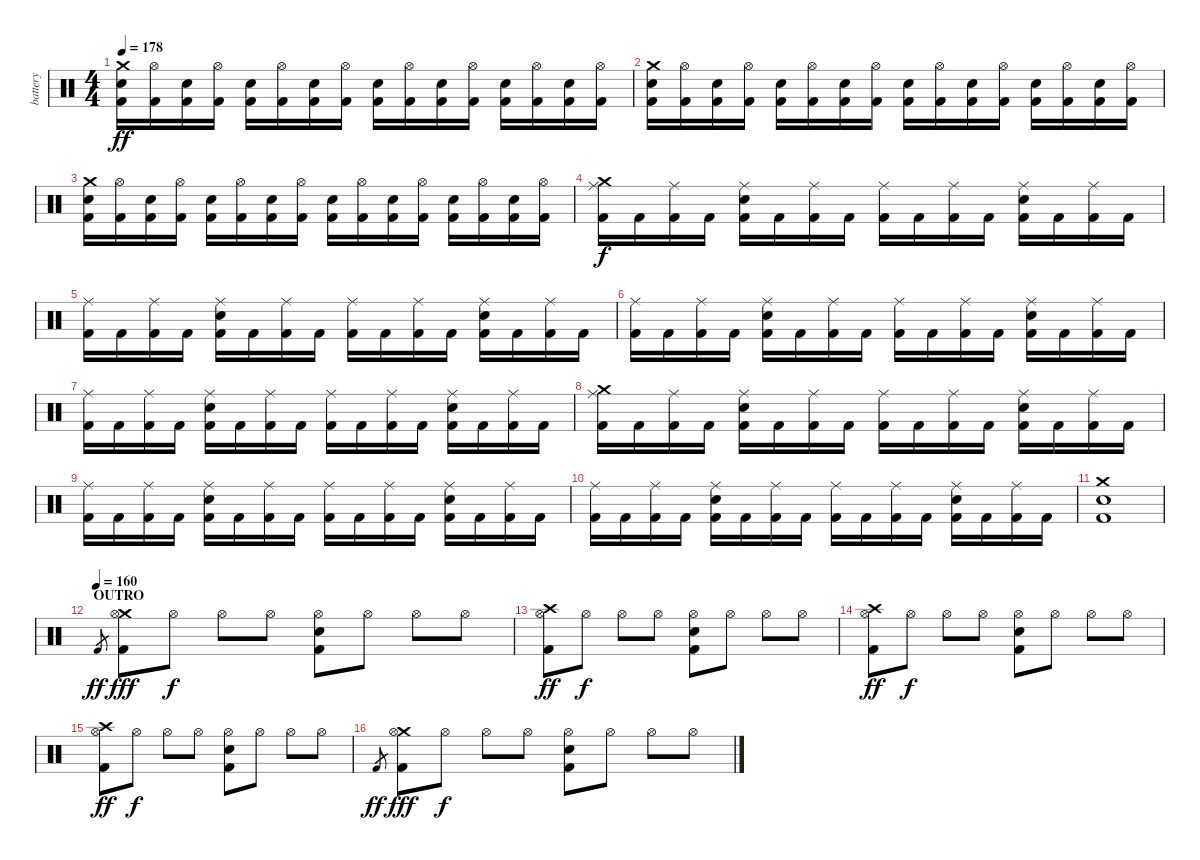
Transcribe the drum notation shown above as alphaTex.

\track ("battery" "battery") {instrument percussion}
\staff {score}
\articulation defaults
\ts (4 4)
\tempo 178
\clef neutral
\ks c
("Kick (hit) 2" "Electric Snare (hit)" "Crash medium (hit)").16{dy ff} ("Kick (hit) 2" "Hi-Hat (open)").16 ("Kick (hit) 2" "Electric Snare (hit)").16 ("Kick (hit) 2" "Hi-Hat (open)").16 ("Kick (hit) 2" "Electric Snare (hit)").16 ("Kick (hit) 2" "Hi-Hat (open)").16 ("Kick (hit) 2" "Electric Snare (hit)").16 ("Kick (hit) 2" "Hi-Hat (open)").16 ("Kick (hit) 2" "Electric Snare (hit)").16 ("Kick (hit) 2" "Hi-Hat (open)").16 ("Kick (hit) 2" "Electric Snare (hit)").16 ("Kick (hit) 2" "Hi-Hat (open)").16 ("Kick (hit) 2" "Electric Snare (hit)").16 ("Kick (hit) 2" "Hi-Hat (open)").16 ("Kick (hit) 2" "Electric Snare (hit)").16 ("Kick (hit) 2" "Hi-Hat (open)").16 |
("Kick (hit) 2" "Electric Snare (hit)" "Crash medium (hit)").16 ("Kick (hit) 2" "Hi-Hat (open)").16 ("Kick (hit) 2" "Electric Snare (hit)").16 ("Kick (hit) 2" "Hi-Hat (open)").16 ("Kick (hit) 2" "Electric Snare (hit)").16 ("Kick (hit) 2" "Hi-Hat (open)").16 ("Kick (hit) 2" "Electric Snare (hit)").16 ("Kick (hit) 2" "Hi-Hat (open)").16 ("Kick (hit) 2" "Electric Snare (hit)").16 ("Kick (hit) 2" "Hi-Hat (open)").16 ("Kick (hit) 2" "Electric Snare (hit)").16 ("Kick (hit) 2" "Hi-Hat (open)").16 ("Kick (hit) 2" "Electric Snare (hit)").16 ("Kick (hit) 2" "Hi-Hat (open)").16 ("Kick (hit) 2" "Electric Snare (hit)").16 ("Kick (hit) 2" "Hi-Hat (open)").16 |
("Kick (hit) 2" "Electric Snare (hit)" "Crash medium (hit)").16 ("Kick (hit) 2" "Hi-Hat (open)").16 ("Kick (hit) 2" "Electric Snare (hit)").16 ("Kick (hit) 2" "Hi-Hat (open)").16 ("Kick (hit) 2" "Electric Snare (hit)").16 ("Kick (hit) 2" "Hi-Hat (open)").16 ("Kick (hit) 2" "Electric Snare (hit)").16 ("Kick (hit) 2" "Hi-Hat (open)").16 ("Kick (hit) 2" "Electric Snare (hit)").16 ("Kick (hit) 2" "Hi-Hat (open)").16 ("Kick (hit) 2" "Electric Snare (hit)").16 ("Kick (hit) 2" "Hi-Hat (open)").16 ("Kick (hit) 2" "Electric Snare (hit)").16 ("Kick (hit) 2" "Hi-Hat (open)").16 ("Kick (hit) 2" "Electric Snare (hit)").16 ("Kick (hit) 2" "Hi-Hat (open)").16 |
("Kick (hit) 2" "Crash medium (hit)" "Ride (middle)").16{dy f} "Kick (hit) 2".16 ("Kick (hit) 2" "Ride (middle)").16 "Kick (hit) 2".16 ("Kick (hit) 2" "Electric Snare (hit)" "Ride (middle)").16 "Kick (hit) 2".16 ("Kick (hit) 2" "Ride (middle)").16 "Kick (hit) 2".16 ("Kick (hit) 2" "Ride (middle)").16 "Kick (hit) 2".16 ("Kick (hit) 2" "Ride (middle)").16 "Kick (hit) 2".16 ("Kick (hit) 2" "Electric Snare (hit)" "Ride (middle)").16 "Kick (hit) 2".16 ("Kick (hit) 2" "Ride (middle)").16 "Kick (hit) 2".16 |
("Kick (hit) 2" "Ride (middle)").16 "Kick (hit) 2".16 ("Kick (hit) 2" "Ride (middle)").16 "Kick (hit) 2".16 ("Kick (hit) 2" "Electric Snare (hit)" "Ride (middle)").16 "Kick (hit) 2".16 ("Kick (hit) 2" "Ride (middle)").16 "Kick (hit) 2".16 ("Kick (hit) 2" "Ride (middle)").16 "Kick (hit) 2".16 ("Kick (hit) 2" "Ride (middle)").16 "Kick (hit) 2".16 ("Kick (hit) 2" "Electric Snare (hit)" "Ride (middle)").16 "Kick (hit) 2".16 ("Kick (hit) 2" "Ride (middle)").16 "Kick (hit) 2".16 |
("Kick (hit) 2" "Ride (middle)").16 "Kick (hit) 2".16 ("Kick (hit) 2" "Ride (middle)").16 "Kick (hit) 2".16 ("Kick (hit) 2" "Electric Snare (hit)" "Ride (middle)").16 "Kick (hit) 2".16 ("Kick (hit) 2" "Ride (middle)").16 "Kick (hit) 2".16 ("Kick (hit) 2" "Ride (middle)").16 "Kick (hit) 2".16 ("Kick (hit) 2" "Ride (middle)").16 "Kick (hit) 2".16 ("Kick (hit) 2" "Electric Snare (hit)" "Ride (middle)").16 "Kick (hit) 2".16 ("Kick (hit) 2" "Ride (middle)").16 "Kick (hit) 2".16 |
("Kick (hit) 2" "Ride (middle)").16 "Kick (hit) 2".16 ("Kick (hit) 2" "Ride (middle)").16 "Kick (hit) 2".16 ("Kick (hit) 2" "Electric Snare (hit)" "Ride (middle)").16 "Kick (hit) 2".16 ("Kick (hit) 2" "Ride (middle)").16 "Kick (hit) 2".16 ("Kick (hit) 2" "Ride (middle)").16 "Kick (hit) 2".16 ("Kick (hit) 2" "Ride (middle)").16 "Kick (hit) 2".16 ("Kick (hit) 2" "Electric Snare (hit)" "Ride (middle)").16 "Kick (hit) 2".16 ("Kick (hit) 2" "Ride (middle)").16 "Kick (hit) 2".16 |
("Kick (hit) 2" "Crash medium (hit)" "Ride (middle)").16 "Kick (hit) 2".16 ("Kick (hit) 2" "Ride (middle)").16 "Kick (hit) 2".16 ("Kick (hit) 2" "Electric Snare (hit)" "Ride (middle)").16 "Kick (hit) 2".16 ("Kick (hit) 2" "Ride (middle)").16 "Kick (hit) 2".16 ("Kick (hit) 2" "Ride (middle)").16 "Kick (hit) 2".16 ("Kick (hit) 2" "Ride (middle)").16 "Kick (hit) 2".16 ("Kick (hit) 2" "Electric Snare (hit)" "Ride (middle)").16 "Kick (hit) 2".16 ("Kick (hit) 2" "Ride (middle)").16 "Kick (hit) 2".16 |
("Kick (hit) 2" "Ride (middle)").16 "Kick (hit) 2".16 ("Kick (hit) 2" "Ride (middle)").16 "Kick (hit) 2".16 ("Kick (hit) 2" "Electric Snare (hit)" "Ride (middle)").16 "Kick (hit) 2".16 ("Kick (hit) 2" "Ride (middle)").16 "Kick (hit) 2".16 ("Kick (hit) 2" "Ride (middle)").16 "Kick (hit) 2".16 ("Kick (hit) 2" "Ride (middle)").16 "Kick (hit) 2".16 ("Kick (hit) 2" "Electric Snare (hit)" "Ride (middle)").16 "Kick (hit) 2".16 ("Kick (hit) 2" "Ride (middle)").16 "Kick (hit) 2".16 |
("Kick (hit) 2" "Ride (middle)").16 "Kick (hit) 2".16 ("Kick (hit) 2" "Ride (middle)").16 "Kick (hit) 2".16 ("Kick (hit) 2" "Electric Snare (hit)" "Ride (middle)").16 "Kick (hit) 2".16 ("Kick (hit) 2" "Ride (middle)").16 "Kick (hit) 2".16 ("Kick (hit) 2" "Ride (middle)").16 "Kick (hit) 2".16 ("Kick (hit) 2" "Ride (middle)").16 "Kick (hit) 2".16 ("Kick (hit) 2" "Electric Snare (hit)" "Ride (middle)").16 "Kick (hit) 2".16 ("Kick (hit) 2" "Ride (middle)").16 "Kick (hit) 2".16 |
("Electric Snare (hit)" "Crash medium (hit)" "Kick (hit) 2").1 |
\section ("" "OUTRO")
\tempo (160)
"Kick (hit) 2".8{gr dy ff} ("Kick (hit) 2" "Crash medium (hit)" "Hi-Hat (open)").8{dy fff} "Hi-Hat (open)".8{dy f} "Hi-Hat (open)".8 "Hi-Hat (open)".8 ("Kick (hit) 2" "Electric Snare (hit)" "Hi-Hat (open)").8 "Hi-Hat (open)".8 "Hi-Hat (open)".8 "Hi-Hat (open)".8 |
("Kick (hit) 2" "Crash high (hit)" "Hi-Hat (open)").8{dy ff} "Hi-Hat (open)".8{dy f} "Hi-Hat (open)".8 "Hi-Hat (open)".8 ("Kick (hit) 2" "Electric Snare (hit)" "Hi-Hat (open)").8 "Hi-Hat (open)".8 "Hi-Hat (open)".8 "Hi-Hat (open)".8 |
("Kick (hit) 2" "Crash high (hit)" "Hi-Hat (open)").8{dy ff} "Hi-Hat (open)".8{dy f} "Hi-Hat (open)".8 "Hi-Hat (open)".8 ("Kick (hit) 2" "Electric Snare (hit)" "Hi-Hat (open)").8 "Hi-Hat (open)".8 "Hi-Hat (open)".8 "Hi-Hat (open)".8 |
("Kick (hit) 2" "Crash high (hit)" "Hi-Hat (open)").8{dy ff} "Hi-Hat (open)".8{dy f} "Hi-Hat (open)".8 "Hi-Hat (open)".8 ("Kick (hit) 2" "Electric Snare (hit)" "Hi-Hat (open)").8 "Hi-Hat (open)".8 "Hi-Hat (open)".8 "Hi-Hat (open)".8 |
"Kick (hit) 2".8{gr dy ff} ("Kick (hit) 2" "Crash medium (hit)" "Hi-Hat (open)").8{dy fff} "Hi-Hat (open)".8{dy f} "Hi-Hat (open)".8 "Hi-Hat (open)".8 ("Kick (hit) 2" "Electric Snare (hit)" "Hi-Hat (open)").8 "Hi-Hat (open)".8 "Hi-Hat (open)".8 "Hi-Hat (open)".8
